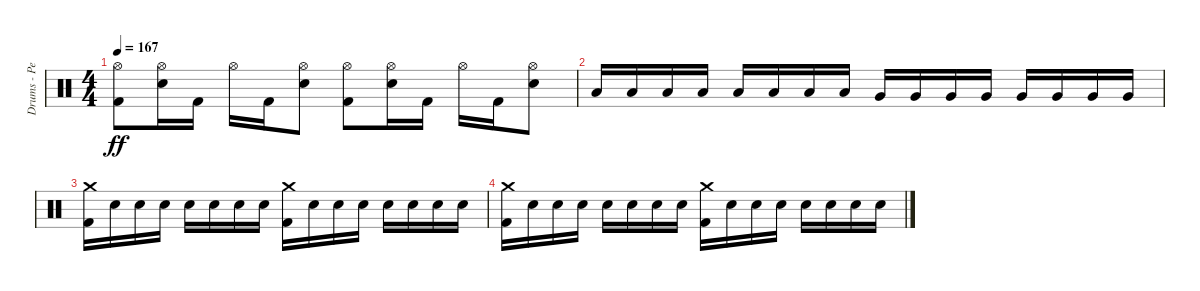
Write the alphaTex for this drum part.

\track ("Drums - Pete Finestone" "Drums - Pe") {instrument percussion}
\staff {score}
\articulation defaults
\ts (4 4)
\tempo 167
\clef neutral
\ks c
("Kick (hit) 2" "Hi-Hat (open)").8{dy ff} ("Electric Snare (hit)" "Hi-Hat (open)").16 "Kick (hit) 2".16 "Hi-Hat (open)".16 "Kick (hit) 2".16 ("Hi-Hat (open)" "Electric Snare (hit)").8 ("Kick (hit) 2" "Hi-Hat (open)").8 ("Hi-Hat (open)" "Electric Snare (hit)").16 "Kick (hit) 2".16 "Hi-Hat (open)".16 "Kick (hit) 2".16 ("Hi-Hat (open)" "Electric Snare (hit)").8 |
"Low Tom (hit)".16 "Low Tom (hit)".16 "Low Tom (hit)".16 "Low Tom (hit)".16 "Low Tom (hit)".16 "Low Tom (hit)".16 "Low Tom (hit)".16 "Low Tom (hit)".16 "Very Low Tom (hit)".16 "Very Low Tom (hit)".16 "Very Low Tom (hit)".16 "Very Low Tom (hit)".16 "Very Low Tom (hit)".16 "Very Low Tom (hit)".16 "Very Low Tom (hit)".16 "Very Low Tom (hit)".16 |
("Crash medium (hit)" "Kick (hit) 2").16 "Electric Snare (hit)".16 "Electric Snare (hit)".16 "Electric Snare (hit)".16 "Electric Snare (hit)".16 "Electric Snare (hit)".16 "Electric Snare (hit)".16 "Electric Snare (hit)".16 ("Crash medium (hit)" "Kick (hit) 2").16 "Electric Snare (hit)".16 "Electric Snare (hit)".16 "Electric Snare (hit)".16 "Electric Snare (hit)".16 "Electric Snare (hit)".16 "Electric Snare (hit)".16 "Electric Snare (hit)".16 |
("Crash medium (hit)" "Kick (hit) 2").16 "Electric Snare (hit)".16 "Electric Snare (hit)".16 "Electric Snare (hit)".16 "Electric Snare (hit)".16 "Electric Snare (hit)".16 "Electric Snare (hit)".16 "Electric Snare (hit)".16 ("Crash medium (hit)" "Kick (hit) 2").16 "Electric Snare (hit)".16 "Electric Snare (hit)".16 "Electric Snare (hit)".16 "Electric Snare (hit)".16 "Electric Snare (hit)".16 "Electric Snare (hit)".16 "Electric Snare (hit)".16
